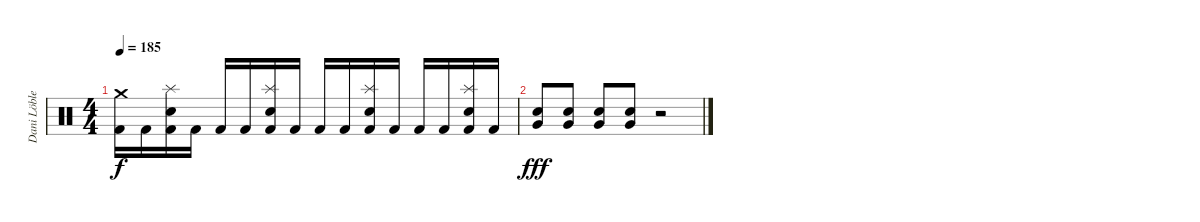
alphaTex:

\track ("Dani Löble" "Dani Löble") {instrument percussion}
\staff {score}
\articulation defaults
\ts (4 4)
\tempo 185
\clef neutral
\ks c
("Crash medium (hit)" "Kick (hit) 2").16{dy f} "Kick (hit) 2".16 ("Splash (hit)" "Electric Snare (hit)" "Kick (hit) 2").16 "Kick (hit) 2".16 "Kick (hit) 2".16 "Kick (hit) 2".16 ("Splash (hit)" "Electric Snare (hit)" "Kick (hit) 2").16 "Kick (hit) 2".16 "Kick (hit) 2".16 "Kick (hit) 2".16 ("Splash (hit)" "Electric Snare (hit)" "Kick (hit) 2").16 "Kick (hit) 2".16 "Kick (hit) 2".16 "Kick (hit) 2".16 ("Splash (hit)" "Electric Snare (hit)" "Kick (hit) 2").16 "Kick (hit) 2".16 |
("Electric Snare (hit)" "Very Low Tom (hit)").8{dy fff} ("Electric Snare (hit)" "Very Low Tom (hit)").8 ("Electric Snare (hit)" "Very Low Tom (hit)").8 ("Electric Snare (hit)" "Very Low Tom (hit)").8 r.2
